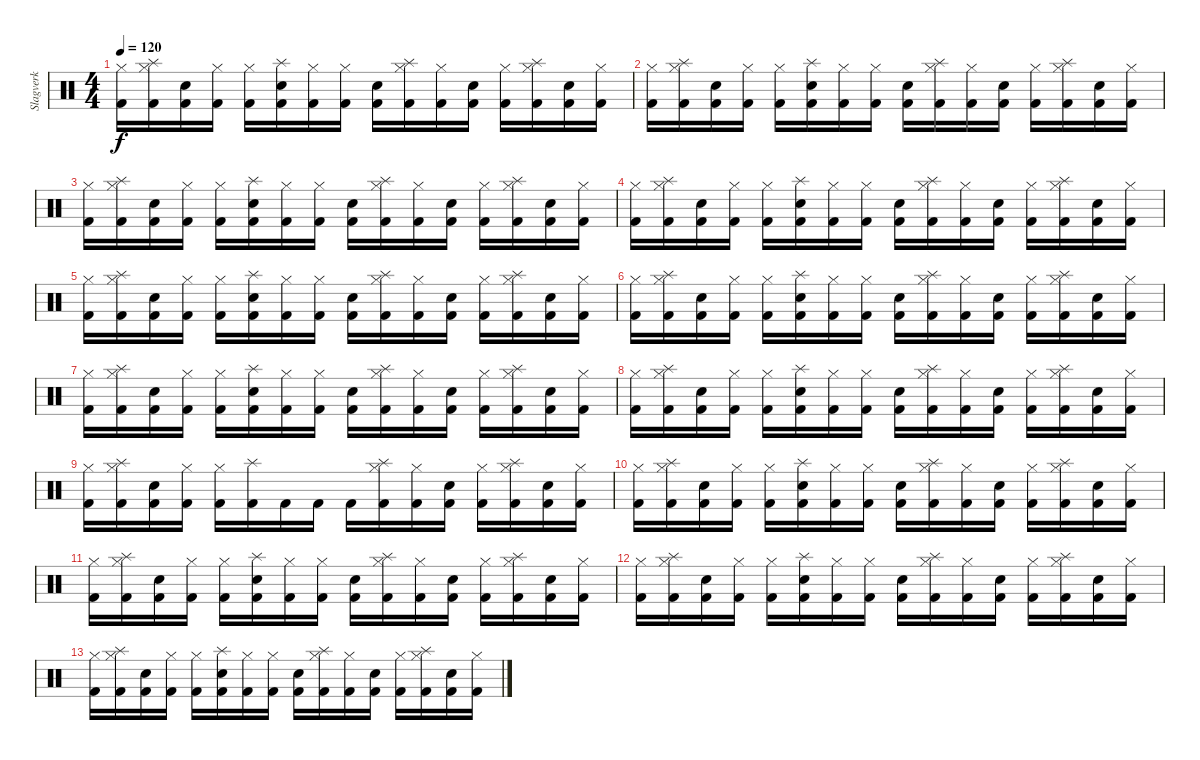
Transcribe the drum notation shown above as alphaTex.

\track ("Slagverk" "Slagverk") {instrument percussion}
\staff {score}
\articulation defaults
\ts (4 4)
\tempo 120
\clef neutral
\ks c
("Kick (hit) 2" "Hi-Hat (closed)").16{dy f} ("Kick (hit) 2" "Hi-Hat (closed)" "Splash (hit)").16 ("Kick (hit) 2" "Snare (hit) 2").16 ("Kick (hit) 2" "Hi-Hat (closed)").16 ("Kick (hit) 2" "Hi-Hat (closed)").16 ("Kick (hit) 2" "Snare (hit) 2" "Splash (hit)").16 ("Kick (hit) 2" "Hi-Hat (closed)").16 ("Kick (hit) 2" "Hi-Hat (closed)").16 ("Kick (hit) 2" "Snare (hit) 2").16 ("Kick (hit) 2" "Hi-Hat (closed)" "Splash (hit)").16 ("Kick (hit) 2" "Hi-Hat (closed)").16 ("Kick (hit) 2" "Snare (hit) 2").16 ("Kick (hit) 2" "Hi-Hat (closed)").16 ("Kick (hit) 2" "Hi-Hat (closed)" "Splash (hit)").16 ("Kick (hit) 2" "Snare (hit) 2").16 ("Kick (hit) 2" "Hi-Hat (closed)").16 |
("Kick (hit) 2" "Hi-Hat (closed)").16 ("Kick (hit) 2" "Hi-Hat (closed)" "Splash (hit)").16 ("Kick (hit) 2" "Snare (hit) 2").16 ("Kick (hit) 2" "Hi-Hat (closed)").16 ("Kick (hit) 2" "Hi-Hat (closed)").16 ("Kick (hit) 2" "Snare (hit) 2" "Splash (hit)").16 ("Kick (hit) 2" "Hi-Hat (closed)").16 ("Kick (hit) 2" "Hi-Hat (closed)").16 ("Kick (hit) 2" "Snare (hit) 2").16 ("Kick (hit) 2" "Hi-Hat (closed)" "Splash (hit)").16 ("Kick (hit) 2" "Hi-Hat (closed)").16 ("Kick (hit) 2" "Snare (hit) 2").16 ("Kick (hit) 2" "Hi-Hat (closed)").16 ("Kick (hit) 2" "Hi-Hat (closed)" "Splash (hit)").16 ("Kick (hit) 2" "Snare (hit) 2").16 ("Kick (hit) 2" "Hi-Hat (closed)").16 |
("Kick (hit) 2" "Hi-Hat (closed)").16 ("Kick (hit) 2" "Hi-Hat (closed)" "Splash (hit)").16 ("Kick (hit) 2" "Snare (hit) 2").16 ("Kick (hit) 2" "Hi-Hat (closed)").16 ("Kick (hit) 2" "Hi-Hat (closed)").16 ("Kick (hit) 2" "Snare (hit) 2" "Splash (hit)").16 ("Kick (hit) 2" "Hi-Hat (closed)").16 ("Kick (hit) 2" "Hi-Hat (closed)").16 ("Kick (hit) 2" "Snare (hit) 2").16 ("Kick (hit) 2" "Hi-Hat (closed)" "Splash (hit)").16 ("Kick (hit) 2" "Hi-Hat (closed)").16 ("Kick (hit) 2" "Snare (hit) 2").16 ("Kick (hit) 2" "Hi-Hat (closed)").16 ("Kick (hit) 2" "Hi-Hat (closed)" "Splash (hit)").16 ("Kick (hit) 2" "Snare (hit) 2").16 ("Kick (hit) 2" "Hi-Hat (closed)").16 |
("Kick (hit) 2" "Hi-Hat (closed)").16 ("Kick (hit) 2" "Hi-Hat (closed)" "Splash (hit)").16 ("Kick (hit) 2" "Snare (hit) 2").16 ("Kick (hit) 2" "Hi-Hat (closed)").16 ("Kick (hit) 2" "Hi-Hat (closed)").16 ("Kick (hit) 2" "Snare (hit) 2" "Splash (hit)").16 ("Kick (hit) 2" "Hi-Hat (closed)").16 ("Kick (hit) 2" "Hi-Hat (closed)").16 ("Kick (hit) 2" "Snare (hit) 2").16 ("Kick (hit) 2" "Hi-Hat (closed)" "Splash (hit)").16 ("Kick (hit) 2" "Hi-Hat (closed)").16 ("Kick (hit) 2" "Snare (hit) 2").16 ("Kick (hit) 2" "Hi-Hat (closed)").16 ("Kick (hit) 2" "Hi-Hat (closed)" "Splash (hit)").16 ("Kick (hit) 2" "Snare (hit) 2").16 ("Kick (hit) 2" "Hi-Hat (closed)").16 |
("Kick (hit) 2" "Hi-Hat (closed)").16 ("Kick (hit) 2" "Hi-Hat (closed)" "Splash (hit)").16 ("Kick (hit) 2" "Snare (hit) 2").16 ("Kick (hit) 2" "Hi-Hat (closed)").16 ("Kick (hit) 2" "Hi-Hat (closed)").16 ("Kick (hit) 2" "Snare (hit) 2" "Splash (hit)").16 ("Kick (hit) 2" "Hi-Hat (closed)").16 ("Kick (hit) 2" "Hi-Hat (closed)").16 ("Kick (hit) 2" "Snare (hit) 2").16 ("Kick (hit) 2" "Hi-Hat (closed)" "Splash (hit)").16 ("Kick (hit) 2" "Hi-Hat (closed)").16 ("Kick (hit) 2" "Snare (hit) 2").16 ("Kick (hit) 2" "Hi-Hat (closed)").16 ("Kick (hit) 2" "Hi-Hat (closed)" "Splash (hit)").16 ("Kick (hit) 2" "Snare (hit) 2").16 ("Kick (hit) 2" "Hi-Hat (closed)").16 |
("Kick (hit) 2" "Hi-Hat (closed)").16 ("Kick (hit) 2" "Hi-Hat (closed)" "Splash (hit)").16 ("Kick (hit) 2" "Snare (hit) 2").16 ("Kick (hit) 2" "Hi-Hat (closed)").16 ("Kick (hit) 2" "Hi-Hat (closed)").16 ("Kick (hit) 2" "Snare (hit) 2" "Splash (hit)").16 ("Kick (hit) 2" "Hi-Hat (closed)").16 ("Kick (hit) 2" "Hi-Hat (closed)").16 ("Kick (hit) 2" "Snare (hit) 2").16 ("Kick (hit) 2" "Hi-Hat (closed)" "Splash (hit)").16 ("Kick (hit) 2" "Hi-Hat (closed)").16 ("Kick (hit) 2" "Snare (hit) 2").16 ("Kick (hit) 2" "Hi-Hat (closed)").16 ("Kick (hit) 2" "Hi-Hat (closed)" "Splash (hit)").16 ("Kick (hit) 2" "Snare (hit) 2").16 ("Kick (hit) 2" "Hi-Hat (closed)").16 |
("Kick (hit) 2" "Hi-Hat (closed)").16 ("Kick (hit) 2" "Hi-Hat (closed)" "Splash (hit)").16 ("Kick (hit) 2" "Snare (hit) 2").16 ("Kick (hit) 2" "Hi-Hat (closed)").16 ("Kick (hit) 2" "Hi-Hat (closed)").16 ("Kick (hit) 2" "Snare (hit) 2" "Splash (hit)").16 ("Kick (hit) 2" "Hi-Hat (closed)").16 ("Kick (hit) 2" "Hi-Hat (closed)").16 ("Kick (hit) 2" "Snare (hit) 2").16 ("Kick (hit) 2" "Hi-Hat (closed)" "Splash (hit)").16 ("Kick (hit) 2" "Hi-Hat (closed)").16 ("Kick (hit) 2" "Snare (hit) 2").16 ("Kick (hit) 2" "Hi-Hat (closed)").16 ("Kick (hit) 2" "Hi-Hat (closed)" "Splash (hit)").16 ("Kick (hit) 2" "Snare (hit) 2").16 ("Kick (hit) 2" "Hi-Hat (closed)").16 |
("Kick (hit) 2" "Hi-Hat (closed)").16 ("Kick (hit) 2" "Hi-Hat (closed)" "Splash (hit)").16 ("Kick (hit) 2" "Snare (hit) 2").16 ("Kick (hit) 2" "Hi-Hat (closed)").16 ("Kick (hit) 2" "Hi-Hat (closed)").16 ("Kick (hit) 2" "Snare (hit) 2" "Splash (hit)").16 ("Kick (hit) 2" "Hi-Hat (closed)").16 ("Kick (hit) 2" "Hi-Hat (closed)").16 ("Kick (hit) 2" "Snare (hit) 2").16 ("Kick (hit) 2" "Hi-Hat (closed)" "Splash (hit)").16 ("Kick (hit) 2" "Hi-Hat (closed)").16 ("Kick (hit) 2" "Snare (hit) 2").16 ("Kick (hit) 2" "Hi-Hat (closed)").16 ("Kick (hit) 2" "Hi-Hat (closed)" "Splash (hit)").16 ("Kick (hit) 2" "Snare (hit) 2").16 ("Kick (hit) 2" "Hi-Hat (closed)").16 |
("Kick (hit) 2" "Hi-Hat (closed)").16 ("Kick (hit) 2" "Hi-Hat (closed)" "Splash (hit)").16 ("Kick (hit) 2" "Snare (hit) 2").16 ("Kick (hit) 2" "Hi-Hat (closed)").16 ("Kick (hit) 2" "Hi-Hat (closed)").16 ("Kick (hit) 2" "Splash (hit)").16 "Kick (hit) 2".16 "Kick (hit) 2".16 "Kick (hit) 2".16 ("Kick (hit) 2" "Hi-Hat (closed)" "Splash (hit)").16 ("Kick (hit) 2" "Hi-Hat (closed)").16 ("Kick (hit) 2" "Snare (hit) 2").16 ("Kick (hit) 2" "Hi-Hat (closed)").16 ("Kick (hit) 2" "Hi-Hat (closed)" "Splash (hit)").16 ("Kick (hit) 2" "Snare (hit) 2").16 ("Kick (hit) 2" "Hi-Hat (closed)").16 |
("Kick (hit) 2" "Hi-Hat (closed)").16 ("Kick (hit) 2" "Hi-Hat (closed)" "Splash (hit)").16 ("Kick (hit) 2" "Snare (hit) 2").16 ("Kick (hit) 2" "Hi-Hat (closed)").16 ("Kick (hit) 2" "Hi-Hat (closed)").16 ("Kick (hit) 2" "Snare (hit) 2" "Splash (hit)").16 ("Kick (hit) 2" "Hi-Hat (closed)").16 ("Kick (hit) 2" "Hi-Hat (closed)").16 ("Kick (hit) 2" "Snare (hit) 2").16 ("Kick (hit) 2" "Hi-Hat (closed)" "Splash (hit)").16 ("Kick (hit) 2" "Hi-Hat (closed)").16 ("Kick (hit) 2" "Snare (hit) 2").16 ("Kick (hit) 2" "Hi-Hat (closed)").16 ("Kick (hit) 2" "Hi-Hat (closed)" "Splash (hit)").16 ("Kick (hit) 2" "Snare (hit) 2").16 ("Kick (hit) 2" "Hi-Hat (closed)").16 |
("Kick (hit) 2" "Hi-Hat (closed)").16 ("Kick (hit) 2" "Hi-Hat (closed)" "Splash (hit)").16 ("Kick (hit) 2" "Snare (hit) 2").16 ("Kick (hit) 2" "Hi-Hat (closed)").16 ("Kick (hit) 2" "Hi-Hat (closed)").16 ("Kick (hit) 2" "Snare (hit) 2" "Splash (hit)").16 ("Kick (hit) 2" "Hi-Hat (closed)").16 ("Kick (hit) 2" "Hi-Hat (closed)").16 ("Kick (hit) 2" "Snare (hit) 2").16 ("Kick (hit) 2" "Hi-Hat (closed)" "Splash (hit)").16 ("Kick (hit) 2" "Hi-Hat (closed)").16 ("Kick (hit) 2" "Snare (hit) 2").16 ("Kick (hit) 2" "Hi-Hat (closed)").16 ("Kick (hit) 2" "Hi-Hat (closed)" "Splash (hit)").16 ("Kick (hit) 2" "Snare (hit) 2").16 ("Kick (hit) 2" "Hi-Hat (closed)").16 |
("Kick (hit) 2" "Hi-Hat (closed)").16 ("Kick (hit) 2" "Hi-Hat (closed)" "Splash (hit)").16 ("Kick (hit) 2" "Snare (hit) 2").16 ("Kick (hit) 2" "Hi-Hat (closed)").16 ("Kick (hit) 2" "Hi-Hat (closed)").16 ("Kick (hit) 2" "Snare (hit) 2" "Splash (hit)").16 ("Kick (hit) 2" "Hi-Hat (closed)").16 ("Kick (hit) 2" "Hi-Hat (closed)").16 ("Kick (hit) 2" "Snare (hit) 2").16 ("Kick (hit) 2" "Hi-Hat (closed)" "Splash (hit)").16 ("Kick (hit) 2" "Hi-Hat (closed)").16 ("Kick (hit) 2" "Snare (hit) 2").16 ("Kick (hit) 2" "Hi-Hat (closed)").16 ("Kick (hit) 2" "Hi-Hat (closed)" "Splash (hit)").16 ("Kick (hit) 2" "Snare (hit) 2").16 ("Kick (hit) 2" "Hi-Hat (closed)").16 |
("Kick (hit) 2" "Hi-Hat (closed)").16 ("Kick (hit) 2" "Hi-Hat (closed)" "Splash (hit)").16 ("Kick (hit) 2" "Snare (hit) 2").16 ("Kick (hit) 2" "Hi-Hat (closed)").16 ("Kick (hit) 2" "Hi-Hat (closed)").16 ("Kick (hit) 2" "Snare (hit) 2" "Splash (hit)").16 ("Kick (hit) 2" "Hi-Hat (closed)").16 ("Kick (hit) 2" "Hi-Hat (closed)").16 ("Kick (hit) 2" "Snare (hit) 2").16 ("Kick (hit) 2" "Hi-Hat (closed)" "Splash (hit)").16 ("Kick (hit) 2" "Hi-Hat (closed)").16 ("Kick (hit) 2" "Snare (hit) 2").16 ("Kick (hit) 2" "Hi-Hat (closed)").16 ("Kick (hit) 2" "Hi-Hat (closed)" "Splash (hit)").16 ("Kick (hit) 2" "Snare (hit) 2").16 ("Kick (hit) 2" "Hi-Hat (closed)").16
